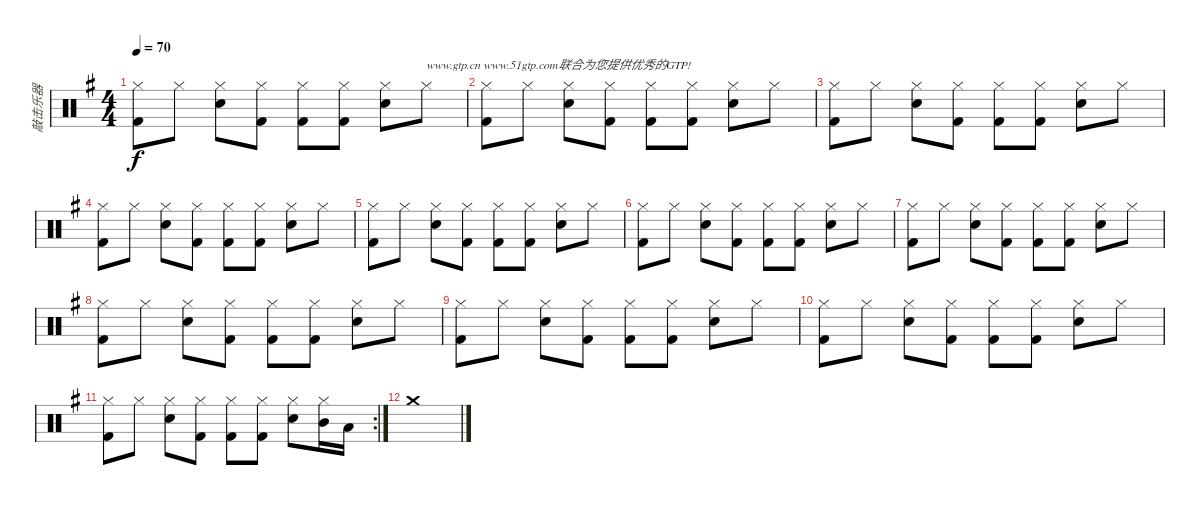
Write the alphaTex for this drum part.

\track ("敲击乐器" "敲击乐器") {solo instrument percussion}
\staff {score}
\articulation defaults
\ts (4 4)
\tempo 70
\clef neutral
\ks g
("Kick (hit) 2" "Hi-Hat (closed)").8{dy f} "Hi-Hat (closed)".8 ("Snare (hit) 2" "Hi-Hat (closed)").8 ("Hi-Hat (closed)" "Kick (hit) 2").8 ("Kick (hit) 2" "Hi-Hat (closed)").8 ("Hi-Hat (closed)" "Kick (hit) 2").8 ("Snare (hit) 2" "Hi-Hat (closed)").8 "Hi-Hat (closed)".8{txt "www.gtp.cn www.51gtp.com联合为您提供优秀的GTP!"} |
("Kick (hit) 2" "Hi-Hat (closed)").8 "Hi-Hat (closed)".8 ("Snare (hit) 2" "Hi-Hat (closed)").8 ("Hi-Hat (closed)" "Kick (hit) 2").8 ("Kick (hit) 2" "Hi-Hat (closed)").8 ("Hi-Hat (closed)" "Kick (hit) 2").8 ("Snare (hit) 2" "Hi-Hat (closed)").8 "Hi-Hat (closed)".8 |
("Kick (hit) 2" "Hi-Hat (closed)").8 "Hi-Hat (closed)".8 ("Snare (hit) 2" "Hi-Hat (closed)").8 ("Hi-Hat (closed)" "Kick (hit) 2").8 ("Kick (hit) 2" "Hi-Hat (closed)").8 ("Hi-Hat (closed)" "Kick (hit) 2").8 ("Snare (hit) 2" "Hi-Hat (closed)").8 "Hi-Hat (closed)".8 |
("Kick (hit) 2" "Hi-Hat (closed)").8 "Hi-Hat (closed)".8 ("Snare (hit) 2" "Hi-Hat (closed)").8 ("Hi-Hat (closed)" "Kick (hit) 2").8 ("Kick (hit) 2" "Hi-Hat (closed)").8 ("Hi-Hat (closed)" "Kick (hit) 2").8 ("Snare (hit) 2" "Hi-Hat (closed)").8 "Hi-Hat (closed)".8 |
("Kick (hit) 2" "Hi-Hat (closed)").8 "Hi-Hat (closed)".8 ("Snare (hit) 2" "Hi-Hat (closed)").8 ("Hi-Hat (closed)" "Kick (hit) 2").8 ("Kick (hit) 2" "Hi-Hat (closed)").8 ("Hi-Hat (closed)" "Kick (hit) 2").8 ("Snare (hit) 2" "Hi-Hat (closed)").8 "Hi-Hat (closed)".8 |
("Kick (hit) 2" "Hi-Hat (closed)").8 "Hi-Hat (closed)".8 ("Snare (hit) 2" "Hi-Hat (closed)").8 ("Hi-Hat (closed)" "Kick (hit) 2").8 ("Kick (hit) 2" "Hi-Hat (closed)").8 ("Hi-Hat (closed)" "Kick (hit) 2").8 ("Snare (hit) 2" "Hi-Hat (closed)").8 "Hi-Hat (closed)".8 |
("Kick (hit) 2" "Hi-Hat (closed)").8 "Hi-Hat (closed)".8 ("Snare (hit) 2" "Hi-Hat (closed)").8 ("Hi-Hat (closed)" "Kick (hit) 2").8 ("Kick (hit) 2" "Hi-Hat (closed)").8 ("Hi-Hat (closed)" "Kick (hit) 2").8 ("Snare (hit) 2" "Hi-Hat (closed)").8 "Hi-Hat (closed)".8 |
("Kick (hit) 2" "Hi-Hat (closed)").8 "Hi-Hat (closed)".8 ("Snare (hit) 2" "Hi-Hat (closed)").8 ("Hi-Hat (closed)" "Kick (hit) 2").8 ("Kick (hit) 2" "Hi-Hat (closed)").8 ("Hi-Hat (closed)" "Kick (hit) 2").8 ("Snare (hit) 2" "Hi-Hat (closed)").8 "Hi-Hat (closed)".8 |
("Kick (hit) 2" "Hi-Hat (closed)").8 "Hi-Hat (closed)".8 ("Snare (hit) 2" "Hi-Hat (closed)").8 ("Hi-Hat (closed)" "Kick (hit) 2").8 ("Kick (hit) 2" "Hi-Hat (closed)").8 ("Hi-Hat (closed)" "Kick (hit) 2").8 ("Snare (hit) 2" "Hi-Hat (closed)").8 "Hi-Hat (closed)".8 |
("Kick (hit) 2" "Hi-Hat (closed)").8 "Hi-Hat (closed)".8 ("Snare (hit) 2" "Hi-Hat (closed)").8 ("Hi-Hat (closed)" "Kick (hit) 2").8 ("Kick (hit) 2" "Hi-Hat (closed)").8 ("Hi-Hat (closed)" "Kick (hit) 2").8 ("Snare (hit) 2" "Hi-Hat (closed)").8 "Hi-Hat (closed)".8 |
\rc 2
("Kick (hit) 2" "Hi-Hat (closed)").8 "Hi-Hat (closed)".8 ("Snare (hit) 2" "Hi-Hat (closed)").8 ("Hi-Hat (closed)" "Kick (hit) 2").8 ("Kick (hit) 2" "Hi-Hat (closed)").8 ("Hi-Hat (closed)" "Kick (hit) 2").8 ("Snare (hit) 2" "Hi-Hat (closed)").8 ("Hi-Hat (closed)" "Mid Tom (hit)").16 "Low Tom (hit)".16 |
"Crash medium (hit)".1
